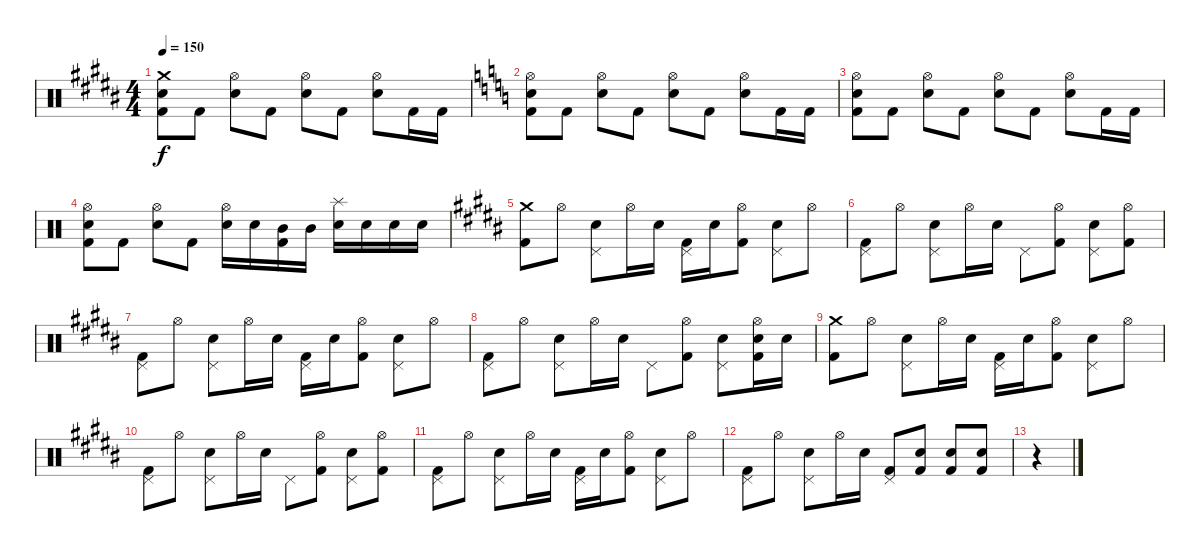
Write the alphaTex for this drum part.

\track "" {instrument percussion}
\staff {score}
\articulation defaults
\ts (4 4)
\tempo 150
\clef neutral
\ks b
("Crash medium (hit)" "Snare (hit) 2" "Kick (hit) 2").8{dy f} "Kick (hit) 2".8 ("Hi-Hat (open)" "Snare (hit) 2").8 "Kick (hit) 2".8 ("Hi-Hat (open)" "Snare (hit) 2").8 "Kick (hit) 2".8 ("Hi-Hat (open)" "Snare (hit) 2").8 "Kick (hit) 2".16 "Kick (hit) 2".16 |
\ks c
("Hi-Hat (open)" "Snare (hit) 2" "Kick (hit) 2").8 "Kick (hit) 2".8 ("Hi-Hat (open)" "Snare (hit) 2").8 "Kick (hit) 2".8 ("Hi-Hat (open)" "Snare (hit) 2").8 "Kick (hit) 2".8 ("Hi-Hat (open)" "Snare (hit) 2").8 "Kick (hit) 2".16 "Kick (hit) 2".16 |
("Hi-Hat (open)" "Snare (hit) 2" "Kick (hit) 2").8 "Kick (hit) 2".8 ("Hi-Hat (open)" "Snare (hit) 2").8 "Kick (hit) 2".8 ("Hi-Hat (open)" "Snare (hit) 2").8 "Kick (hit) 2".8 ("Hi-Hat (open)" "Snare (hit) 2").8 "Kick (hit) 2".16 "Kick (hit) 2".16 |
("Hi-Hat (open)" "Snare (hit) 2" "Kick (hit) 2").8 "Kick (hit) 2".8 ("Hi-Hat (open)" "Snare (hit) 2").8 "Kick (hit) 2".8 ("Hi-Hat (open)" "Snare (hit) 2").16 "Snare (hit) 2".16 ("Mid Tom (hit)" "Kick (hit) 2").16 "Mid Tom (hit)".16 ("Splash (hit)" "Snare (hit) 2").16 "Snare (hit) 2".16 "Snare (hit) 2".16 "Snare (hit) 2".16 |
\ks b
("Crash medium (hit)" "Kick (hit) 2").8 "Hi-Hat (open)".8 ("Pedal Hi-Hat (hit)" "Snare (hit) 2").8 "Hi-Hat (open)".16 "Snare (hit) 2".16 ("Pedal Hi-Hat (hit)" "Kick (hit) 2").16 "Snare (hit) 2".16 ("Hi-Hat (open)" "Kick (hit) 2").8 ("Pedal Hi-Hat (hit)" "Snare (hit) 2").8 "Hi-Hat (open)".8 |
("Pedal Hi-Hat (hit)" "Kick (hit) 2").8 "Hi-Hat (open)".8 ("Pedal Hi-Hat (hit)" "Snare (hit) 2").8 "Hi-Hat (open)".16 "Snare (hit) 2".16 "Pedal Hi-Hat (hit)".8 ("Hi-Hat (open)" "Kick (hit) 2").8 ("Pedal Hi-Hat (hit)" "Snare (hit) 2").8 ("Hi-Hat (open)" "Kick (hit) 2").8 |
("Pedal Hi-Hat (hit)" "Kick (hit) 2").8 "Hi-Hat (open)".8 ("Pedal Hi-Hat (hit)" "Snare (hit) 2").8 "Hi-Hat (open)".16 "Snare (hit) 2".16 ("Pedal Hi-Hat (hit)" "Kick (hit) 2").16 "Snare (hit) 2".16 ("Hi-Hat (open)" "Kick (hit) 2").8 ("Pedal Hi-Hat (hit)" "Snare (hit) 2").8 "Hi-Hat (open)".8 |
("Pedal Hi-Hat (hit)" "Kick (hit) 2").8 "Hi-Hat (open)".8 ("Pedal Hi-Hat (hit)" "Snare (hit) 2").8 "Hi-Hat (open)".16 "Snare (hit) 2".16 "Pedal Hi-Hat (hit)".8 ("Hi-Hat (open)" "Kick (hit) 2").8 ("Pedal Hi-Hat (hit)" "Snare (hit) 2").8 ("Hi-Hat (open)" "Snare (hit) 2" "Kick (hit) 2").16 "Snare (hit) 2".16 |
("Crash medium (hit)" "Kick (hit) 2").8 "Hi-Hat (open)".8 ("Pedal Hi-Hat (hit)" "Snare (hit) 2").8 "Hi-Hat (open)".16 "Snare (hit) 2".16 ("Pedal Hi-Hat (hit)" "Kick (hit) 2").16 "Snare (hit) 2".16 ("Hi-Hat (open)" "Kick (hit) 2").8 ("Pedal Hi-Hat (hit)" "Snare (hit) 2").8 "Hi-Hat (open)".8 |
("Pedal Hi-Hat (hit)" "Kick (hit) 2").8 "Hi-Hat (open)".8 ("Pedal Hi-Hat (hit)" "Snare (hit) 2").8 "Hi-Hat (open)".16 "Snare (hit) 2".16 "Pedal Hi-Hat (hit)".8 ("Hi-Hat (open)" "Kick (hit) 2").8 ("Pedal Hi-Hat (hit)" "Snare (hit) 2").8 ("Hi-Hat (open)" "Kick (hit) 2").8 |
("Pedal Hi-Hat (hit)" "Kick (hit) 2").8 "Hi-Hat (open)".8 ("Pedal Hi-Hat (hit)" "Snare (hit) 2").8 "Hi-Hat (open)".16 "Snare (hit) 2".16 ("Pedal Hi-Hat (hit)" "Kick (hit) 2").16 "Snare (hit) 2".16 ("Hi-Hat (open)" "Kick (hit) 2").8 ("Pedal Hi-Hat (hit)" "Snare (hit) 2").8 "Hi-Hat (open)".8 |
("Pedal Hi-Hat (hit)" "Kick (hit) 2").8 "Hi-Hat (open)".8 ("Pedal Hi-Hat (hit)" "Snare (hit) 2").8 "Hi-Hat (open)".16 "Snare (hit) 2".16 ("Pedal Hi-Hat (hit)" "Kick (hit) 2").8 ("Snare (hit) 2" "Kick (hit) 2").8 ("Snare (hit) 2" "Kick (hit) 2").8 ("Snare (hit) 2" "Kick (hit) 2").8 |
r.4
